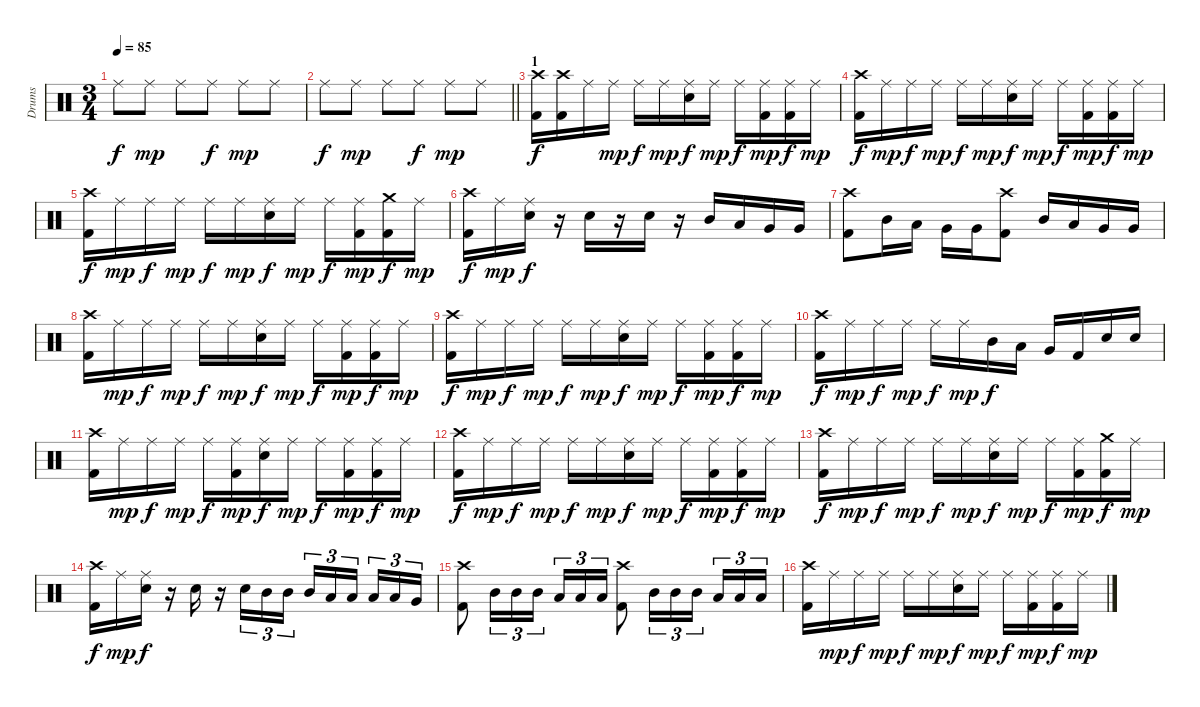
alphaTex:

\track ("Drums" "Drums") {instrument percussion}
\staff {score}
\articulation defaults
\ts (3 4)
\tempo 85
\clef neutral
\ks c "Ride (middle)".8{dy f} "Ride (middle)".8{dy mp} "Ride (middle)".8 "Ride (middle)".8{dy f} "Ride (middle)".8{dy mp} "Ride (middle)".8
|
\barLineRight lightlight "Ride (middle)".8{dy f} "Ride (middle)".8{dy mp} "Ride (middle)".8 "Ride (middle)".8{dy f} "Ride (middle)".8{dy mp} "Ride (middle)".8
|
\section ("" "1")
("Crash high (hit)" "Kick (hit) 2").16{dy f} ("Crash high (hit)" "Kick (hit) 2").16 "Ride (middle)".16 "Ride (middle)".16{dy mp} "Ride (middle)".16{dy f} "Ride (middle)".16{dy mp} ("Ride (middle)" "Electric Snare (hit)").16{dy f} "Ride (middle)".16{dy mp} "Ride (middle)".16{dy f} ("Ride (middle)" "Kick (hit) 2").16{dy mp} ("Ride (middle)" "Kick (hit) 2").16{dy f} "Ride (middle)".16{dy mp} |
("Crash high (hit)" "Kick (hit) 2").16{dy f} "Ride (middle)".16{dy mp} "Ride (middle)".16{dy f} "Ride (middle)".16{dy mp} "Ride (middle)".16{dy f} "Ride (middle)".16{dy mp} ("Ride (middle)" "Electric Snare (hit)").16{dy f} "Ride (middle)".16{dy mp} "Ride (middle)".16{dy f} ("Ride (middle)" "Kick (hit) 2").16{dy mp} ("Ride (middle)" "Kick (hit) 2").16{dy f} "Ride (middle)".16{dy mp} |
("Crash high (hit)" "Kick (hit) 2").16{dy f} "Ride (middle)".16{dy mp} "Ride (middle)".16{dy f} "Ride (middle)".16{dy mp} "Ride (middle)".16{dy f} "Ride (middle)".16{dy mp} ("Ride (middle)" "Electric Snare (hit)").16{dy f} "Ride (middle)".16{dy mp} "Ride (middle)".16{dy f} ("Ride (middle)" "Kick (hit) 2").16{dy mp} ("Crash medium (hit)" "Kick (hit) 2").16{dy f} "Ride (middle)".16{dy mp} |
("Crash high (hit)" "Kick (hit) 2").16{dy f} "Ride (middle)".16{dy mp} ("Ride (middle)" "Electric Snare (hit)").16{dy f} r.16 "Electric Snare (hit)".16 r.16 "Electric Snare (hit)".16 r.16 "Mid Tom (hit)".16 "Low Tom (hit)".16 "Very Low Tom (hit)".16 "Very Low Tom (hit)".16 |
("Crash high (hit)" "Kick (hit) 2").8 "Mid Tom (hit)".16 "Low Tom (hit)".16 "Very Low Tom (hit)".16 "Very Low Tom (hit)".16 ("Crash high (hit)" "Kick (hit) 2").8 "Mid Tom (hit)".16 "Low Tom (hit)".16 "Very Low Tom (hit)".16 "Very Low Tom (hit)".16 |
("Crash high (hit)" "Kick (hit) 2").16 "Ride (middle)".16{dy mp} "Ride (middle)".16{dy f} "Ride (middle)".16{dy mp} "Ride (middle)".16{dy f} "Ride (middle)".16{dy mp} ("Ride (middle)" "Electric Snare (hit)").16{dy f} "Ride (middle)".16{dy mp} "Ride (middle)".16{dy f} ("Ride (middle)" "Kick (hit) 2").16{dy mp} ("Ride (middle)" "Kick (hit) 2").16{dy f} "Ride (middle)".16{dy mp} |
("Crash high (hit)" "Kick (hit) 2").16{dy f} "Ride (middle)".16{dy mp} "Ride (middle)".16{dy f} "Ride (middle)".16{dy mp} "Ride (middle)".16{dy f} "Ride (middle)".16{dy mp} ("Ride (middle)" "Electric Snare (hit)").16{dy f} "Ride (middle)".16{dy mp} "Ride (middle)".16{dy f} ("Ride (middle)" "Kick (hit) 2").16{dy mp} ("Ride (middle)" "Kick (hit) 2").16{dy f} "Ride (middle)".16{dy mp} |
("Crash high (hit)" "Kick (hit) 2").16{dy f} "Ride (middle)".16{dy mp} "Ride (middle)".16{dy f} "Ride (middle)".16{dy mp} "Ride (middle)".16{dy f} "Ride (middle)".16{dy mp} "Mid Tom (hit)".16{dy f} "Low Tom (hit)".16 "Very Low Tom (hit)".16 "Kick (hit) 2".16 "Electric Snare (hit)".16 "Electric Snare (hit)".16 |
("Crash high (hit)" "Kick (hit) 2").16 "Ride (middle)".16{dy mp} "Ride (middle)".16{dy f} "Ride (middle)".16{dy mp} "Ride (middle)".16{dy f} ("Ride (middle)" "Kick (hit) 2").16{dy mp} ("Ride (middle)" "Electric Snare (hit)").16{dy f} "Ride (middle)".16{dy mp} "Ride (middle)".16{dy f} ("Ride (middle)" "Kick (hit) 2").16{dy mp} ("Ride (middle)" "Kick (hit) 2").16{dy f} "Ride (middle)".16{dy mp} |
("Crash high (hit)" "Kick (hit) 2").16{dy f} "Ride (middle)".16{dy mp} "Ride (middle)".16{dy f} "Ride (middle)".16{dy mp} "Ride (middle)".16{dy f} "Ride (middle)".16{dy mp} ("Ride (middle)" "Electric Snare (hit)").16{dy f} "Ride (middle)".16{dy mp} "Ride (middle)".16{dy f} ("Ride (middle)" "Kick (hit) 2").16{dy mp} ("Ride (middle)" "Kick (hit) 2").16{dy f} "Ride (middle)".16{dy mp} |
("Crash high (hit)" "Kick (hit) 2").16{dy f} "Ride (middle)".16{dy mp} "Ride (middle)".16{dy f} "Ride (middle)".16{dy mp} "Ride (middle)".16{dy f} "Ride (middle)".16{dy mp} ("Ride (middle)" "Electric Snare (hit)").16{dy f} "Ride (middle)".16{dy mp} "Ride (middle)".16{dy f} ("Ride (middle)" "Kick (hit) 2").16{dy mp} ("Crash medium (hit)" "Kick (hit) 2").16{dy f} "Ride (middle)".16{dy mp} |
("Crash high (hit)" "Kick (hit) 2").16{dy f} "Ride (middle)".16{dy mp} ("Ride (middle)" "Electric Snare (hit)").16{dy f} r.16 "Electric Snare (hit)".16 r.16 "Electric Snare (hit)".16{tu (3 2)} "Mid Tom (hit)".16{tu (3 2)} "Mid Tom (hit)".16{tu (3 2)} "Mid Tom (hit)".16{tu (3 2)} "Low Tom (hit)".16{tu (3 2)} "Low Tom (hit)".16{tu (3 2) beam splitsecondary} "Low Tom (hit)".16{tu (3 2)} "Low Tom (hit)".16{tu (3 2)} "Very Low Tom (hit)".16{tu (3 2)} |
("Crash high (hit)" "Kick (hit) 2").8 "Mid Tom (hit)".16{tu (3 2)} "Mid Tom (hit)".16{tu (3 2)} "Mid Tom (hit)".16{tu (3 2)} "Low Tom (hit)".16{tu (3 2)} "Low Tom (hit)".16{tu (3 2)} "Low Tom (hit)".16{tu (3 2)} ("Crash high (hit)" "Kick (hit) 2").8 "Mid Tom (hit)".16{tu (3 2)} "Mid Tom (hit)".16{tu (3 2)} "Mid Tom (hit)".16{tu (3 2) beam splitsecondary} "Low Tom (hit)".16{tu (3 2)} "Low Tom (hit)".16{tu (3 2)} "Low Tom (hit)".16{tu (3 2)} |
("Crash high (hit)" "Kick (hit) 2").16 "Ride (middle)".16{dy mp} "Ride (middle)".16{dy f} "Ride (middle)".16{dy mp} "Ride (middle)".16{dy f} "Ride (middle)".16{dy mp} ("Ride (middle)" "Electric Snare (hit)").16{dy f} "Ride (middle)".16{dy mp} "Ride (middle)".16{dy f} ("Ride (middle)" "Kick (hit) 2").16{dy mp} ("Ride (middle)" "Kick (hit) 2").16{dy f} "Ride (middle)".16{dy mp}
